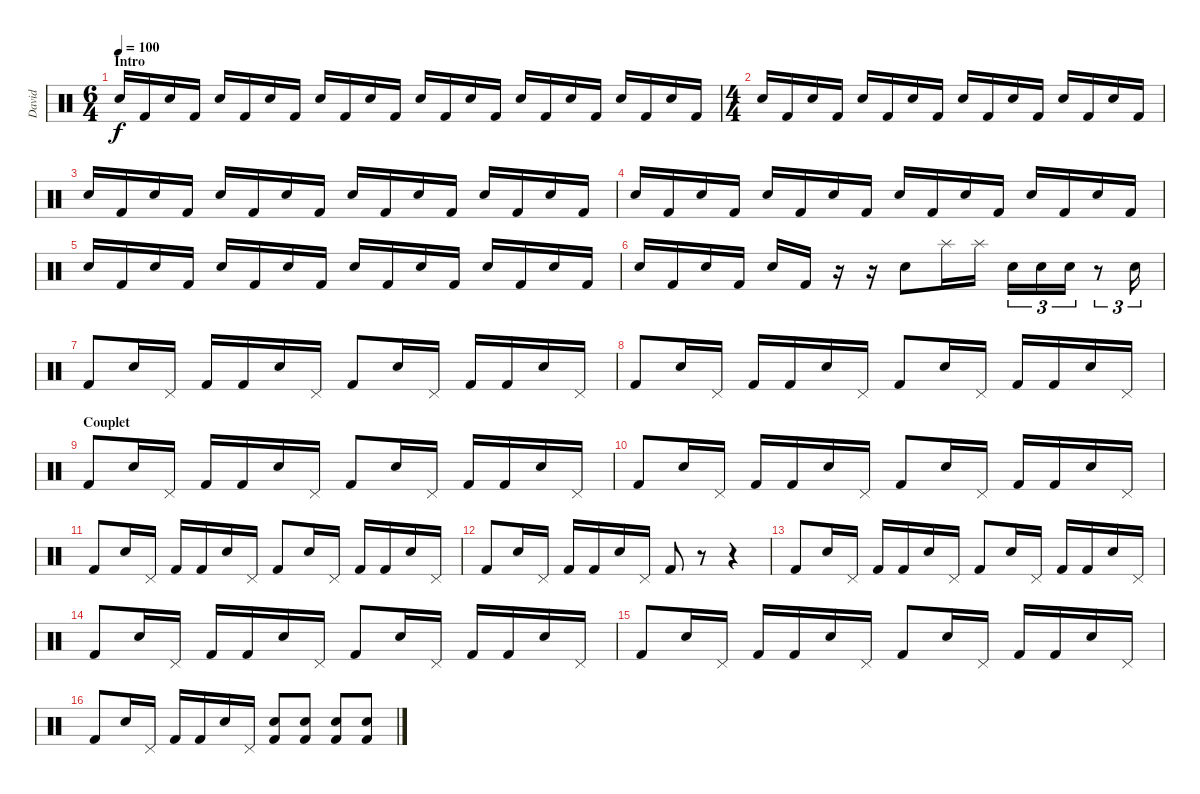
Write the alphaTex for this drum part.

\track ("David" "David") {instrument percussion}
\staff {score}
\articulation defaults
\ts (6 4)
\section ("" "Intro")
\tempo 100
\clef neutral
\ks c "Electric Snare (hit)".16{dy f volume 0} "Kick (hit) 2".16{volume 13} "Electric Snare (hit)".16 "Kick (hit) 2".16 "Electric Snare (hit)".16 "Kick (hit) 2".16 "Electric Snare (hit)".16 "Kick (hit) 2".16 "Electric Snare (hit)".16 "Kick (hit) 2".16 "Electric Snare (hit)".16 "Kick (hit) 2".16 "Electric Snare (hit)".16 "Kick (hit) 2".16 "Electric Snare (hit)".16 "Kick (hit) 2".16 "Electric Snare (hit)".16 "Kick (hit) 2".16 "Electric Snare (hit)".16 "Kick (hit) 2".16 "Electric Snare (hit)".16 "Kick (hit) 2".16 "Electric Snare (hit)".16 "Kick (hit) 2".16
|
\ts (4 4)
"Electric Snare (hit)".16 "Kick (hit) 2".16 "Electric Snare (hit)".16 "Kick (hit) 2".16 "Electric Snare (hit)".16 "Kick (hit) 2".16 "Electric Snare (hit)".16 "Kick (hit) 2".16 "Electric Snare (hit)".16 "Kick (hit) 2".16 "Electric Snare (hit)".16 "Kick (hit) 2".16 "Electric Snare (hit)".16 "Kick (hit) 2".16 "Electric Snare (hit)".16 "Kick (hit) 2".16 |
"Electric Snare (hit)".16 "Kick (hit) 2".16 "Electric Snare (hit)".16 "Kick (hit) 2".16 "Electric Snare (hit)".16 "Kick (hit) 2".16 "Electric Snare (hit)".16 "Kick (hit) 2".16 "Electric Snare (hit)".16 "Kick (hit) 2".16 "Electric Snare (hit)".16 "Kick (hit) 2".16 "Electric Snare (hit)".16 "Kick (hit) 2".16 "Electric Snare (hit)".16 "Kick (hit) 2".16 |
"Electric Snare (hit)".16 "Kick (hit) 2".16 "Electric Snare (hit)".16 "Kick (hit) 2".16 "Electric Snare (hit)".16 "Kick (hit) 2".16 "Electric Snare (hit)".16 "Kick (hit) 2".16 "Electric Snare (hit)".16 "Kick (hit) 2".16 "Electric Snare (hit)".16 "Kick (hit) 2".16 "Electric Snare (hit)".16 "Kick (hit) 2".16 "Electric Snare (hit)".16 "Kick (hit) 2".16 |
"Electric Snare (hit)".16 "Kick (hit) 2".16 "Electric Snare (hit)".16 "Kick (hit) 2".16 "Electric Snare (hit)".16 "Kick (hit) 2".16 "Electric Snare (hit)".16 "Kick (hit) 2".16 "Electric Snare (hit)".16 "Kick (hit) 2".16 "Electric Snare (hit)".16 "Kick (hit) 2".16 "Electric Snare (hit)".16 "Kick (hit) 2".16 "Electric Snare (hit)".16 "Kick (hit) 2".16 |
"Electric Snare (hit)".16 "Kick (hit) 2".16 "Electric Snare (hit)".16 "Kick (hit) 2".16 "Electric Snare (hit)".16 "Kick (hit) 2".16 r.16 r.16 "Electric Snare (hit)".8 "Splash (hit)".16 "Splash (hit)".16 "Electric Snare (hit)".16{tu (3 2)} "Electric Snare (hit)".16{tu (3 2)} "Electric Snare (hit)".16{tu (3 2)} r.8{tu (3 2)} "Electric Snare (hit)".16{tu (3 2)} |
"Kick (hit) 2".8 "Electric Snare (hit)".16 "Pedal Hi-Hat (hit)".16 "Kick (hit) 2".16 "Kick (hit) 2".16 "Electric Snare (hit)".16 "Pedal Hi-Hat (hit)".16 "Kick (hit) 2".8 "Electric Snare (hit)".16 "Pedal Hi-Hat (hit)".16 "Kick (hit) 2".16 "Kick (hit) 2".16 "Electric Snare (hit)".16 "Pedal Hi-Hat (hit)".16 |
"Kick (hit) 2".8 "Electric Snare (hit)".16 "Pedal Hi-Hat (hit)".16 "Kick (hit) 2".16 "Kick (hit) 2".16 "Electric Snare (hit)".16 "Pedal Hi-Hat (hit)".16 "Kick (hit) 2".8 "Electric Snare (hit)".16 "Pedal Hi-Hat (hit)".16 "Kick (hit) 2".16 "Kick (hit) 2".16 "Electric Snare (hit)".16 "Pedal Hi-Hat (hit)".16 |
\section ("" "Couplet")
"Kick (hit) 2".8 "Electric Snare (hit)".16 "Pedal Hi-Hat (hit)".16 "Kick (hit) 2".16 "Kick (hit) 2".16 "Electric Snare (hit)".16 "Pedal Hi-Hat (hit)".16 "Kick (hit) 2".8 "Electric Snare (hit)".16 "Pedal Hi-Hat (hit)".16 "Kick (hit) 2".16 "Kick (hit) 2".16 "Electric Snare (hit)".16 "Pedal Hi-Hat (hit)".16 |
"Kick (hit) 2".8 "Electric Snare (hit)".16 "Pedal Hi-Hat (hit)".16 "Kick (hit) 2".16 "Kick (hit) 2".16 "Electric Snare (hit)".16 "Pedal Hi-Hat (hit)".16 "Kick (hit) 2".8 "Electric Snare (hit)".16 "Pedal Hi-Hat (hit)".16 "Kick (hit) 2".16 "Kick (hit) 2".16 "Electric Snare (hit)".16 "Pedal Hi-Hat (hit)".16 |
"Kick (hit) 2".8 "Electric Snare (hit)".16 "Pedal Hi-Hat (hit)".16 "Kick (hit) 2".16 "Kick (hit) 2".16 "Electric Snare (hit)".16 "Pedal Hi-Hat (hit)".16 "Kick (hit) 2".8 "Electric Snare (hit)".16 "Pedal Hi-Hat (hit)".16 "Kick (hit) 2".16 "Kick (hit) 2".16 "Electric Snare (hit)".16 "Pedal Hi-Hat (hit)".16 |
"Kick (hit) 2".8 "Electric Snare (hit)".16 "Pedal Hi-Hat (hit)".16 "Kick (hit) 2".16 "Kick (hit) 2".16 "Electric Snare (hit)".16 "Pedal Hi-Hat (hit)".16 "Kick (hit) 2".8 r.8 r.4 |
"Kick (hit) 2".8 "Electric Snare (hit)".16 "Pedal Hi-Hat (hit)".16 "Kick (hit) 2".16 "Kick (hit) 2".16 "Electric Snare (hit)".16 "Pedal Hi-Hat (hit)".16 "Kick (hit) 2".8 "Electric Snare (hit)".16 "Pedal Hi-Hat (hit)".16 "Kick (hit) 2".16 "Kick (hit) 2".16 "Electric Snare (hit)".16 "Pedal Hi-Hat (hit)".16 |
"Kick (hit) 2".8 "Electric Snare (hit)".16 "Pedal Hi-Hat (hit)".16 "Kick (hit) 2".16 "Kick (hit) 2".16 "Electric Snare (hit)".16 "Pedal Hi-Hat (hit)".16 "Kick (hit) 2".8 "Electric Snare (hit)".16 "Pedal Hi-Hat (hit)".16 "Kick (hit) 2".16 "Kick (hit) 2".16 "Electric Snare (hit)".16 "Pedal Hi-Hat (hit)".16 |
"Kick (hit) 2".8 "Electric Snare (hit)".16 "Pedal Hi-Hat (hit)".16 "Kick (hit) 2".16 "Kick (hit) 2".16 "Electric Snare (hit)".16 "Pedal Hi-Hat (hit)".16 "Kick (hit) 2".8 "Electric Snare (hit)".16 "Pedal Hi-Hat (hit)".16 "Kick (hit) 2".16 "Kick (hit) 2".16 "Electric Snare (hit)".16 "Pedal Hi-Hat (hit)".16 |
"Kick (hit) 2".8 "Electric Snare (hit)".16 "Pedal Hi-Hat (hit)".16 "Kick (hit) 2".16 "Kick (hit) 2".16 "Electric Snare (hit)".16 "Pedal Hi-Hat (hit)".16 ("Electric Snare (hit)" "Kick (hit) 2").8 ("Electric Snare (hit)" "Kick (hit) 2").8 ("Electric Snare (hit)" "Kick (hit) 2").8 ("Electric Snare (hit)" "Kick (hit) 2").8
